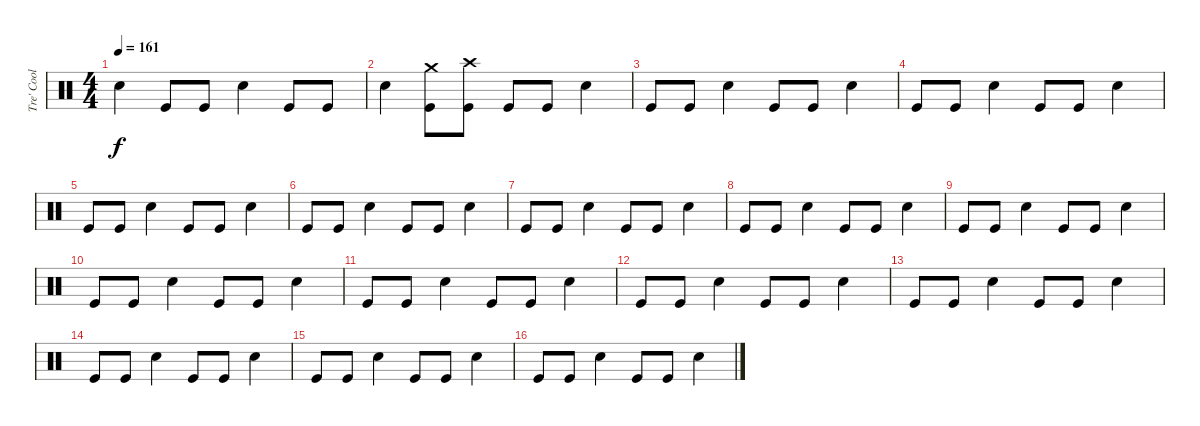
\track ("Tre' Cool" "Tre' Cool") {instrument percussion}
\staff {score}
\articulation defaults
\ts (4 4)
\tempo 161
\clef neutral
\ks c "Snare (hit) 2".4{dy f} "Kick (hit)".8 "Kick (hit)".8 "Snare (hit) 2".4 "Kick (hit)".8 "Kick (hit)".8
|
"Snare (hit) 2".4 ("Kick (hit)" "Crash medium (hit)").8 ("Kick (hit)" "Crash high (hit)").8 "Kick (hit)".8 "Kick (hit)".8 "Snare (hit) 2".4 |
"Kick (hit)".8 "Kick (hit)".8 "Snare (hit) 2".4 "Kick (hit)".8 "Kick (hit)".8 "Snare (hit) 2".4 |
"Kick (hit)".8 "Kick (hit)".8 "Snare (hit) 2".4 "Kick (hit)".8 "Kick (hit)".8 "Snare (hit) 2".4 |
"Kick (hit)".8 "Kick (hit)".8 "Snare (hit) 2".4 "Kick (hit)".8 "Kick (hit)".8 "Snare (hit) 2".4 |
"Kick (hit)".8 "Kick (hit)".8 "Snare (hit) 2".4 "Kick (hit)".8 "Kick (hit)".8 "Snare (hit) 2".4 |
"Kick (hit)".8 "Kick (hit)".8 "Snare (hit) 2".4 "Kick (hit)".8 "Kick (hit)".8 "Snare (hit) 2".4 |
"Kick (hit)".8 "Kick (hit)".8 "Snare (hit) 2".4 "Kick (hit)".8 "Kick (hit)".8 "Snare (hit) 2".4 |
"Kick (hit)".8 "Kick (hit)".8 "Snare (hit) 2".4 "Kick (hit)".8 "Kick (hit)".8 "Snare (hit) 2".4 |
"Kick (hit)".8 "Kick (hit)".8 "Snare (hit) 2".4 "Kick (hit)".8 "Kick (hit)".8 "Snare (hit) 2".4 |
"Kick (hit)".8 "Kick (hit)".8 "Snare (hit) 2".4 "Kick (hit)".8 "Kick (hit)".8 "Snare (hit) 2".4 |
"Kick (hit)".8 "Kick (hit)".8 "Snare (hit) 2".4 "Kick (hit)".8 "Kick (hit)".8 "Snare (hit) 2".4 |
"Kick (hit)".8 "Kick (hit)".8 "Snare (hit) 2".4 "Kick (hit)".8 "Kick (hit)".8 "Snare (hit) 2".4 |
"Kick (hit)".8 "Kick (hit)".8 "Snare (hit) 2".4 "Kick (hit)".8 "Kick (hit)".8 "Snare (hit) 2".4 |
"Kick (hit)".8 "Kick (hit)".8 "Snare (hit) 2".4 "Kick (hit)".8 "Kick (hit)".8 "Snare (hit) 2".4 |
"Kick (hit)".8 "Kick (hit)".8 "Snare (hit) 2".4 "Kick (hit)".8 "Kick (hit)".8 "Snare (hit) 2".4
